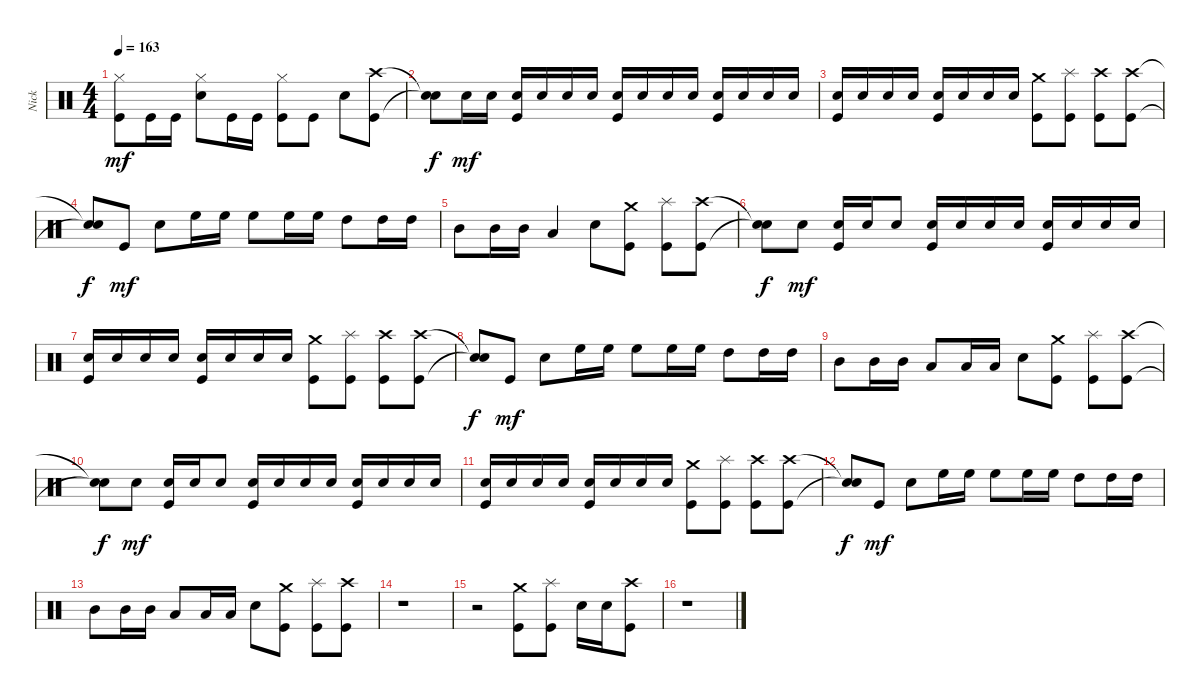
\track ("Nick" "Nick") {instrument percussion}
\staff {score}
\articulation defaults
\ts (4 4)
\tempo 163
\clef neutral
\ks c
("Kick (hit)" "Hi-Hat (closed)").8{dy mf} "Kick (hit)".16 "Kick (hit)".16 ("Hi-Hat (closed)" "Snare (hit) 2").8 "Kick (hit)".16 "Kick (hit)".16 ("Kick (hit)" "Hi-Hat (closed)").8 "Kick (hit)".8 "Snare (hit) 2".8 ("Kick (hit)" "Crash high (hit)").8 |
("Snare (hit)"{t} "Snare (hit)"{t}).8{dy f} "Snare (hit) 2".16{dy mf} "Snare (hit) 2".16 ("Kick (hit)" "Snare (hit) 2").16 "Snare (hit) 2".16 "Snare (hit) 2".16 "Snare (hit) 2".16 ("Kick (hit)" "Snare (hit) 2").16 "Snare (hit) 2".16 "Snare (hit) 2".16 "Snare (hit) 2".16 ("Kick (hit)" "Snare (hit) 2").16 "Snare (hit) 2".16 "Snare (hit) 2".16 "Snare (hit) 2".16 |
("Kick (hit)" "Snare (hit) 2").16 "Snare (hit) 2".16 "Snare (hit) 2".16 "Snare (hit) 2".16 ("Kick (hit)" "Snare (hit) 2").16 "Snare (hit) 2".16 "Snare (hit) 2".16 "Snare (hit) 2".16 ("Kick (hit)" "Crash medium (hit)").8 ("Kick (hit)" "Splash (hit)").8 ("Kick (hit)" "Crash high (hit)").8 ("Kick (hit)" "Crash high (hit)").8 |
("Snare (hit)"{t} "Snare (hit)"{t}).8{dy f} "Kick (hit)".8{dy mf} "Snare (hit) 2".8 "High Floor Tom (hit)".16 "High Floor Tom (hit)".16 "High Floor Tom (hit)".8 "High Floor Tom (hit)".16 "High Floor Tom (hit)".16 "High Tom (hit)".8 "High Tom (hit)".16 "High Tom (hit)".16 |
"Mid Tom (hit)".8 "Mid Tom (hit)".16 "Mid Tom (hit)".16 "Low Tom (hit)".4 "Snare (hit) 2".8 ("Kick (hit)" "Crash medium (hit)").8 ("Kick (hit)" "Splash (hit)").8 ("Kick (hit)" "Crash high (hit)").8 |
("Snare (hit)"{t} "Snare (hit)"{t}).8{dy f} "Snare (hit) 2".8{dy mf} ("Kick (hit)" "Snare (hit) 2").16 "Snare (hit) 2".16 "Snare (hit) 2".8 ("Kick (hit)" "Snare (hit) 2").16 "Snare (hit) 2".16 "Snare (hit) 2".16 "Snare (hit) 2".16 ("Kick (hit)" "Snare (hit) 2").16 "Snare (hit) 2".16 "Snare (hit) 2".16 "Snare (hit) 2".16 |
("Kick (hit)" "Snare (hit) 2").16 "Snare (hit) 2".16 "Snare (hit) 2".16 "Snare (hit) 2".16 ("Kick (hit)" "Snare (hit) 2").16 "Snare (hit) 2".16 "Snare (hit) 2".16 "Snare (hit) 2".16 ("Kick (hit)" "Crash medium (hit)").8 ("Kick (hit)" "Splash (hit)").8 ("Kick (hit)" "Crash high (hit)").8 ("Kick (hit)" "Crash high (hit)").8 |
("Snare (hit)"{t} "Snare (hit)"{t}).8{dy f} "Kick (hit)".8{dy mf} "Snare (hit) 2".8 "High Floor Tom (hit)".16 "High Floor Tom (hit)".16 "High Floor Tom (hit)".8 "High Floor Tom (hit)".16 "High Floor Tom (hit)".16 "High Tom (hit)".8 "High Tom (hit)".16 "High Tom (hit)".16 |
"Mid Tom (hit)".8 "Mid Tom (hit)".16 "Mid Tom (hit)".16 "Low Tom (hit)".8 "Low Tom (hit)".16 "Low Tom (hit)".16 "Snare (hit) 2".8 ("Kick (hit)" "Crash medium (hit)").8 ("Kick (hit)" "Splash (hit)").8 ("Kick (hit)" "Crash high (hit)").8 |
("Snare (hit)"{t} "Snare (hit)"{t}).8{dy f} "Snare (hit) 2".8{dy mf} ("Kick (hit)" "Snare (hit) 2").16 "Snare (hit) 2".16 "Snare (hit) 2".8 ("Kick (hit)" "Snare (hit) 2").16 "Snare (hit) 2".16 "Snare (hit) 2".16 "Snare (hit) 2".16 ("Kick (hit)" "Snare (hit) 2").16 "Snare (hit) 2".16 "Snare (hit) 2".16 "Snare (hit) 2".16 |
("Kick (hit)" "Snare (hit) 2").16 "Snare (hit) 2".16 "Snare (hit) 2".16 "Snare (hit) 2".16 ("Kick (hit)" "Snare (hit) 2").16 "Snare (hit) 2".16 "Snare (hit) 2".16 "Snare (hit) 2".16 ("Kick (hit)" "Crash medium (hit)").8 ("Kick (hit)" "Splash (hit)").8 ("Kick (hit)" "Crash high (hit)").8 ("Kick (hit)" "Crash high (hit)").8 |
("Snare (hit)"{t} "Snare (hit)"{t}).8{dy f} "Kick (hit)".8{dy mf} "Snare (hit) 2".8 "High Floor Tom (hit)".16 "High Floor Tom (hit)".16 "High Floor Tom (hit)".8 "High Floor Tom (hit)".16 "High Floor Tom (hit)".16 "High Tom (hit)".8 "High Tom (hit)".16 "High Tom (hit)".16 |
"Mid Tom (hit)".8 "Mid Tom (hit)".16 "Mid Tom (hit)".16 "Low Tom (hit)".8 "Low Tom (hit)".16 "Low Tom (hit)".16 "Snare (hit) 2".8 ("Kick (hit)" "Crash medium (hit)").8 ("Kick (hit)" "Splash (hit)").8 ("Kick (hit)" "Crash high (hit)").8 |
r.1 |
r.2 ("Kick (hit)" "Crash medium (hit)").8 ("Kick (hit)" "Splash (hit)").8 "Snare (hit) 2".16 "Snare (hit) 2".16 ("Kick (hit)" "Crash high (hit)").8 |
r.1
